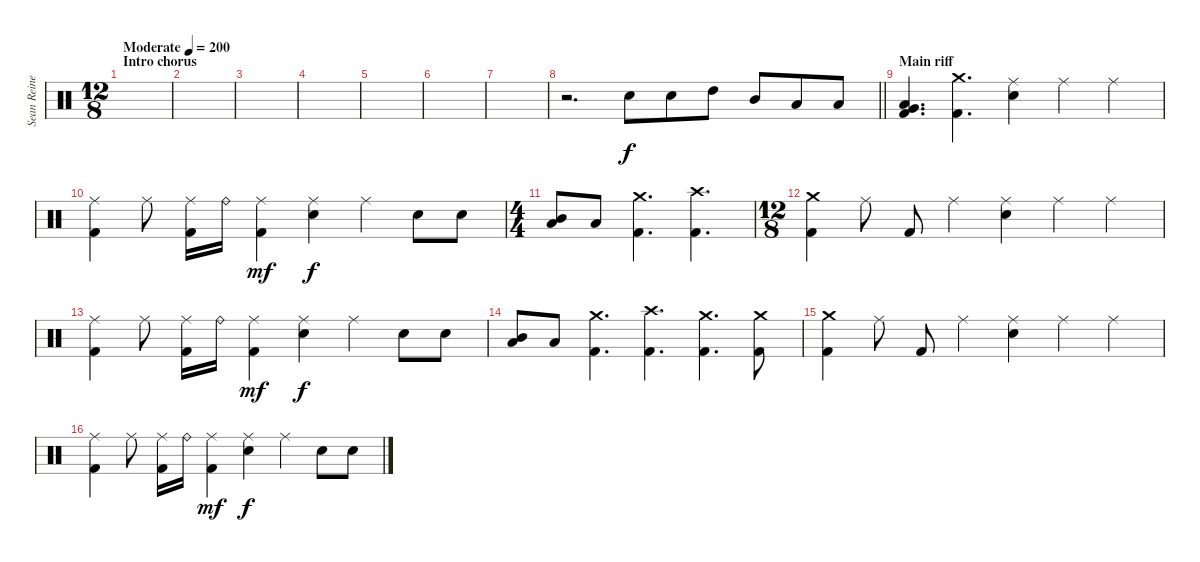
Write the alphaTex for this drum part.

\track ("Sean Reinert" "Sean Reine") {instrument percussion}
\staff {score}
\articulation defaults
\ts (12 8)
\section ("" "Intro chorus")
\tempo (200 "Moderate")
\clef neutral
\ks c
|
|
|
|
|
|
|
\barLineRight lightlight
r.2{d} "Snare (hit) 2".8 "Snare (hit) 2".8 "High Tom (hit)".8 "Mid Tom (hit)".8 "Low Tom (hit)".8 "Low Tom (hit)".8 |
\section ("" "Main riff")
("Very Low Tom (hit)" "Low Floor Tom (hit)" "Kick (hit) 2").4{d} ("Crash medium (hit)" "Kick (hit) 2").4{d} ("Ride (middle)" "Snare (hit) 2").4 "Ride (middle)".4 "Ride (middle)".4 |
("Ride (middle)" "Kick (hit) 2").4 "Ride (middle)".8 ("Ride (middle)" "Kick (hit) 2").16 "Ride (bell)".16 ("Ride (middle)" "Kick (hit) 2").4{dy mf} ("Ride (middle)" "Snare (hit) 2").4{dy f} "Ride (middle)".4 "Snare (hit) 2".8 "Snare (hit) 2".8 |
\ts (4 4)
("Mid Tom (hit)" "Low Tom (hit)").8 "Low Tom (hit)".8 ("Crash medium (hit)" "Kick (hit) 2").4{d} ("Crash high (hit)" "Kick (hit) 2").4{d} |
\ts (12 8)
("Crash medium (hit)" "Kick (hit) 2").4 "Ride (middle)".8 "Kick (hit) 2".8 "Ride (middle)".4 ("Ride (middle)" "Snare (hit) 2").4 "Ride (middle)".4 "Ride (middle)".4 |
("Ride (middle)" "Kick (hit) 2").4 "Ride (middle)".8 ("Ride (middle)" "Kick (hit) 2").16 "Ride (bell)".16 ("Ride (middle)" "Kick (hit) 2").4{dy mf} ("Ride (middle)" "Snare (hit) 2").4{dy f} "Ride (middle)".4 "Snare (hit) 2".8 "Snare (hit) 2".8 |
("Mid Tom (hit)" "Low Tom (hit)").8 "Low Tom (hit)".8 ("Crash medium (hit)" "Kick (hit) 2").4{d} ("Crash high (hit)" "Kick (hit) 2").4{d} ("Crash medium (hit)" "Kick (hit) 2").4{d} ("Crash medium (hit)" "Kick (hit) 2").8 |
("Crash medium (hit)" "Kick (hit) 2").4 "Ride (middle)".8 "Kick (hit) 2".8 "Ride (middle)".4 ("Ride (middle)" "Snare (hit) 2").4 "Ride (middle)".4 "Ride (middle)".4 |
("Ride (middle)" "Kick (hit) 2").4 "Ride (middle)".8 ("Ride (middle)" "Kick (hit) 2").16 "Ride (bell)".16 ("Ride (middle)" "Kick (hit) 2").4{dy mf} ("Ride (middle)" "Snare (hit) 2").4{dy f} "Ride (middle)".4 "Snare (hit) 2".8 "Snare (hit) 2".8
